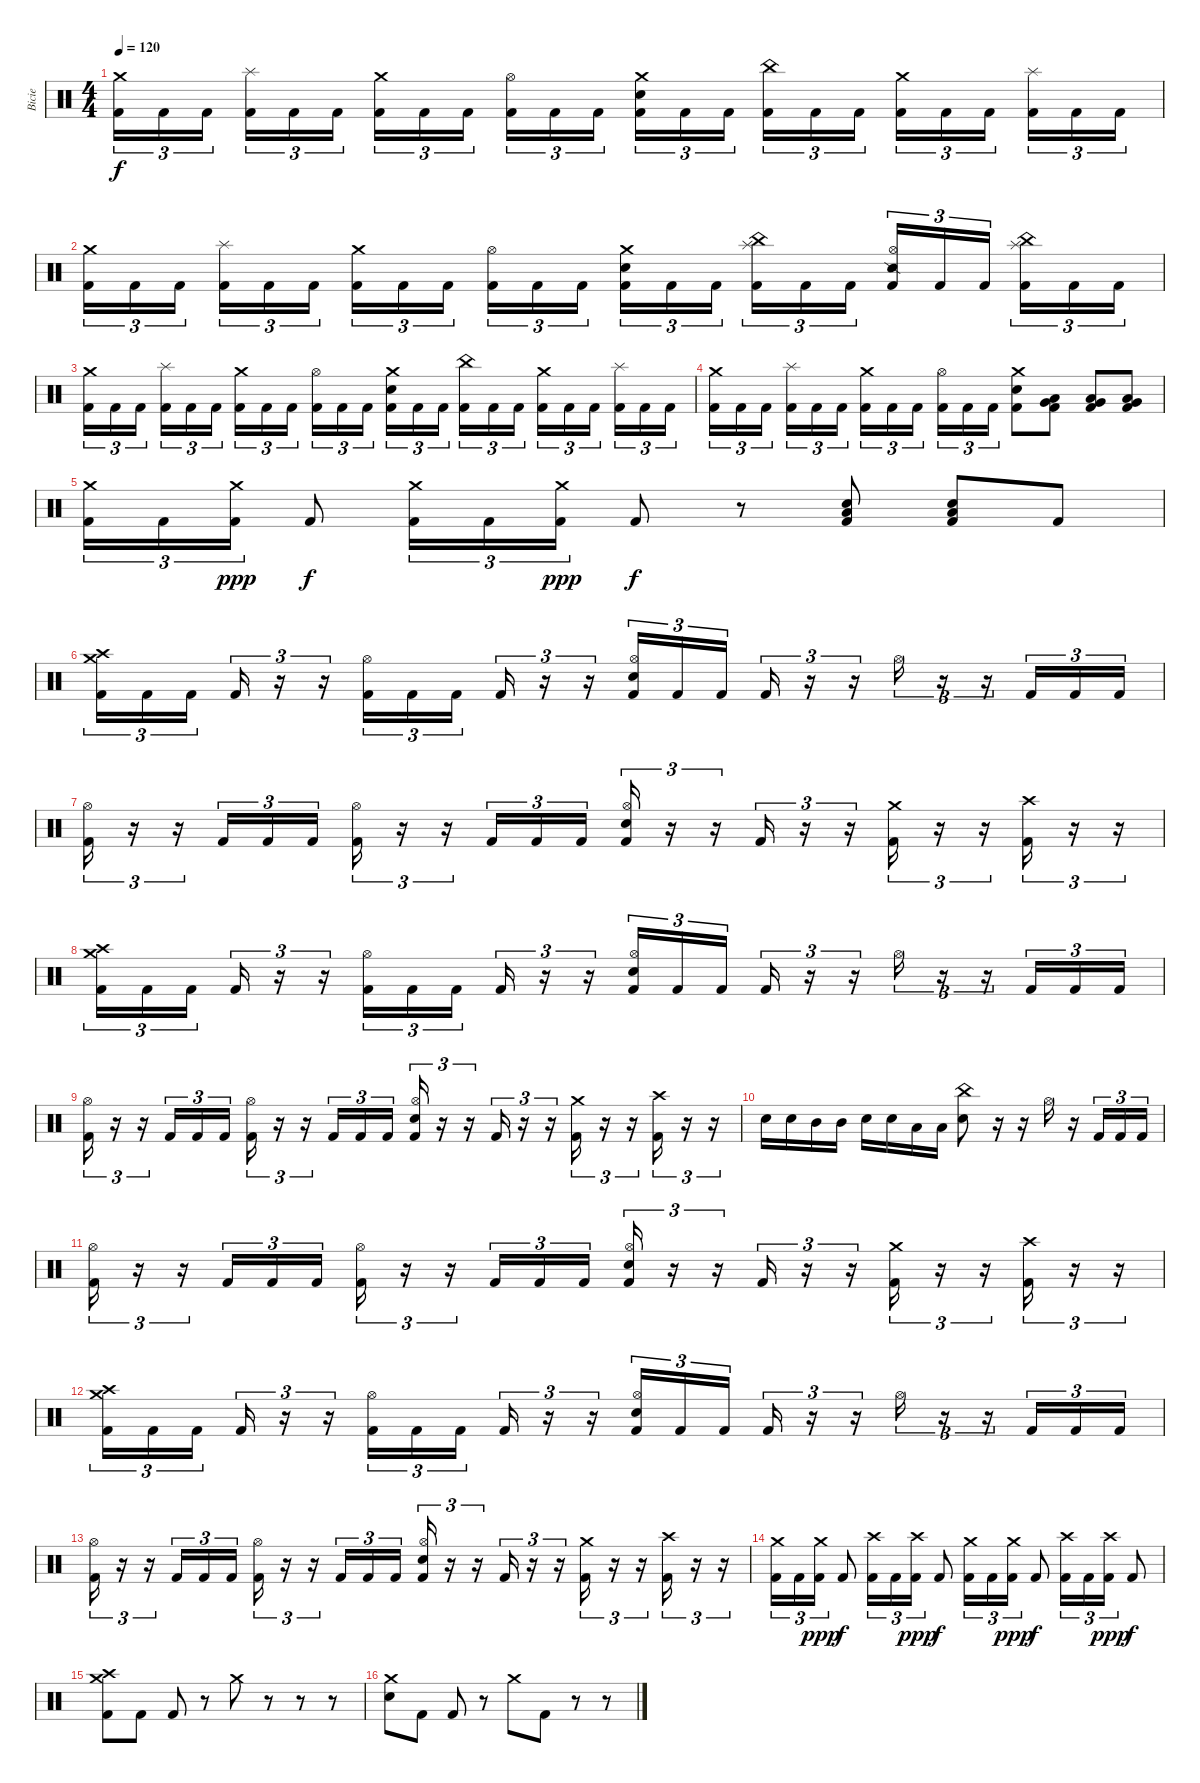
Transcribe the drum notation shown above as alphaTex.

\track ("Bicie" "Bicie") {instrument percussion}
\staff {score}
\articulation defaults
\ts (4 4)
\tempo 120
\clef neutral
\ks c
("Crash medium (hit)" "Kick (hit) 2").16{tu (3 2) dy f} "Kick (hit) 2".16{tu (3 2)} "Kick (hit) 2".16{tu (3 2) beam splitsecondary} ("Splash (hit)" "Kick (hit) 2").16{tu (3 2)} "Kick (hit) 2".16{tu (3 2)} "Kick (hit) 2".16{tu (3 2)} ("Crash medium (hit)" "Kick (hit) 2").16{tu (3 2)} "Kick (hit) 2".16{tu (3 2)} "Kick (hit) 2".16{tu (3 2) beam splitsecondary} ("Hi-Hat (open)" "Kick (hit) 2").16{tu (3 2)} "Kick (hit) 2".16{tu (3 2)} "Kick (hit) 2".16{tu (3 2)} ("Crash medium (hit)" "Snare (hit) 2" "Kick (hit) 2").16{tu (3 2)} "Kick (hit) 2".16{tu (3 2)} "Kick (hit) 2".16{tu (3 2) beam splitsecondary} ("China (hit)" "Kick (hit) 2").16{tu (3 2)} "Kick (hit) 2".16{tu (3 2)} "Kick (hit) 2".16{tu (3 2)} ("Crash medium (hit)" "Kick (hit) 2").16{tu (3 2)} "Kick (hit) 2".16{tu (3 2)} "Kick (hit) 2".16{tu (3 2) beam splitsecondary} ("Splash (hit)" "Kick (hit) 2").16{tu (3 2)} "Kick (hit) 2".16{tu (3 2)} "Kick (hit) 2".16{tu (3 2)} |
("Crash medium (hit)" "Kick (hit) 2").16{tu (3 2)} "Kick (hit) 2".16{tu (3 2)} "Kick (hit) 2".16{tu (3 2) beam splitsecondary} ("Splash (hit)" "Kick (hit) 2").16{tu (3 2)} "Kick (hit) 2".16{tu (3 2)} "Kick (hit) 2".16{tu (3 2)} ("Crash medium (hit)" "Kick (hit) 2").16{tu (3 2)} "Kick (hit) 2".16{tu (3 2)} "Kick (hit) 2".16{tu (3 2) beam splitsecondary} ("Hi-Hat (open)" "Kick (hit) 2").16{tu (3 2)} "Kick (hit) 2".16{tu (3 2)} "Kick (hit) 2".16{tu (3 2)} ("Crash medium (hit)" "Snare (hit) 2" "Kick (hit) 2").16{tu (3 2)} "Kick (hit) 2".16{tu (3 2)} "Kick (hit) 2".16{tu (3 2) beam splitsecondary} ("China (hit)" "Splash (hit)" "Kick (hit) 2").16{tu (3 2)} "Kick (hit) 2".16{tu (3 2)} "Kick (hit) 2".16{tu (3 2)} ("Snare (side stick) 2" "Hi-Hat (open)" "Kick (hit) 2").16{tu (3 2)} "Kick (hit) 2".16{tu (3 2)} "Kick (hit) 2".16{tu (3 2) beam splitsecondary} ("China (hit)" "Splash (hit)" "Kick (hit) 2").16{tu (3 2)} "Kick (hit) 2".16{tu (3 2)} "Kick (hit) 2".16{tu (3 2)} |
("Crash medium (hit)" "Kick (hit) 2").16{tu (3 2)} "Kick (hit) 2".16{tu (3 2)} "Kick (hit) 2".16{tu (3 2) beam splitsecondary} ("Splash (hit)" "Kick (hit) 2").16{tu (3 2)} "Kick (hit) 2".16{tu (3 2)} "Kick (hit) 2".16{tu (3 2)} ("Crash medium (hit)" "Kick (hit) 2").16{tu (3 2)} "Kick (hit) 2".16{tu (3 2)} "Kick (hit) 2".16{tu (3 2) beam splitsecondary} ("Hi-Hat (open)" "Kick (hit) 2").16{tu (3 2)} "Kick (hit) 2".16{tu (3 2)} "Kick (hit) 2".16{tu (3 2)} ("Crash medium (hit)" "Snare (hit) 2" "Kick (hit) 2").16{tu (3 2)} "Kick (hit) 2".16{tu (3 2)} "Kick (hit) 2".16{tu (3 2) beam splitsecondary} ("China (hit)" "Kick (hit) 2").16{tu (3 2)} "Kick (hit) 2".16{tu (3 2)} "Kick (hit) 2".16{tu (3 2)} ("Crash medium (hit)" "Kick (hit) 2").16{tu (3 2)} "Kick (hit) 2".16{tu (3 2)} "Kick (hit) 2".16{tu (3 2) beam splitsecondary} ("Splash (hit)" "Kick (hit) 2").16{tu (3 2)} "Kick (hit) 2".16{tu (3 2)} "Kick (hit) 2".16{tu (3 2)} |
("Crash medium (hit)" "Kick (hit) 2").16{tu (3 2)} "Kick (hit) 2".16{tu (3 2)} "Kick (hit) 2".16{tu (3 2) beam splitsecondary} ("Splash (hit)" "Kick (hit) 2").16{tu (3 2)} "Kick (hit) 2".16{tu (3 2)} "Kick (hit) 2".16{tu (3 2)} ("Crash medium (hit)" "Kick (hit) 2").16{tu (3 2)} "Kick (hit) 2".16{tu (3 2)} "Kick (hit) 2".16{tu (3 2) beam splitsecondary} ("Hi-Hat (open)" "Kick (hit) 2").16{tu (3 2)} "Kick (hit) 2".16{tu (3 2)} "Kick (hit) 2".16{tu (3 2)} ("Crash medium (hit)" "Snare (hit) 2" "Kick (hit) 2").8 ("Low Tom (hit)" "Very Low Tom (hit)" "Kick (hit) 2").8 ("Very Low Tom (hit)" "Low Floor Tom (hit)" "Kick (hit) 2").8 ("Very Low Tom (hit)" "Low Floor Tom (hit)" "Kick (hit) 2").8 |
("Crash medium (hit)" "Kick (hit) 2").16{tu (3 2)} "Kick (hit) 2".16{tu (3 2)} ("Crash medium (hit)" "Kick (hit) 2").16{tu (3 2) dy ppp} "Kick (hit) 2".8{dy f} ("Crash medium (hit)" "Kick (hit) 2").16{tu (3 2)} "Kick (hit) 2".16{tu (3 2)} ("Crash medium (hit)" "Kick (hit) 2").16{tu (3 2) dy ppp} "Kick (hit) 2".8{dy f} r.8 ("Low Floor Tom (hit)" "Snare (hit) 2" "Kick (hit) 2").8 ("Low Floor Tom (hit)" "Snare (hit) 2" "Kick (hit) 2").8 "Kick (hit) 2".8 |
("Crash medium (hit)" "Crash high (hit)" "Kick (hit) 2").16{tu (3 2)} "Kick (hit) 2".16{tu (3 2)} "Kick (hit) 2".16{tu (3 2) beam splitsecondary} "Kick (hit) 2".16{tu (3 2)} r.16{tu (3 2)} r.16{tu (3 2)} ("Hi-Hat (open)" "Kick (hit) 2").16{tu (3 2)} "Kick (hit) 2".16{tu (3 2)} "Kick (hit) 2".16{tu (3 2) beam splitsecondary} "Kick (hit) 2".16{tu (3 2)} r.16{tu (3 2)} r.16{tu (3 2)} ("Hi-Hat (open)" "Snare (hit) 2" "Kick (hit) 2").16{tu (3 2)} "Kick (hit) 2".16{tu (3 2)} "Kick (hit) 2".16{tu (3 2) beam splitsecondary} "Kick (hit) 2".16{tu (3 2)} r.16{tu (3 2)} r.16{tu (3 2)} "Hi-Hat (open)".16{tu (3 2)} r.16{tu (3 2)} r.16{tu (3 2)} "Kick (hit) 2".16{tu (3 2)} "Kick (hit) 2".16{tu (3 2)} "Kick (hit) 2".16{tu (3 2)} |
("Hi-Hat (open)" "Kick (hit) 2").16{tu (3 2)} r.16{tu (3 2)} r.16{tu (3 2)} "Kick (hit) 2".16{tu (3 2)} "Kick (hit) 2".16{tu (3 2)} "Kick (hit) 2".16{tu (3 2)} ("Hi-Hat (open)" "Kick (hit) 2").16{tu (3 2)} r.16{tu (3 2)} r.16{tu (3 2)} "Kick (hit) 2".16{tu (3 2)} "Kick (hit) 2".16{tu (3 2)} "Kick (hit) 2".16{tu (3 2)} ("Hi-Hat (open)" "Snare (hit) 2" "Kick (hit) 2").16{tu (3 2)} r.16{tu (3 2)} r.16{tu (3 2)} "Kick (hit) 2".16{tu (3 2)} r.16{tu (3 2)} r.16{tu (3 2)} ("Crash medium (hit)" "Kick (hit) 2").16{tu (3 2)} r.16{tu (3 2)} r.16{tu (3 2)} ("Crash high (hit)" "Kick (hit) 2").16{tu (3 2)} r.16{tu (3 2)} r.16{tu (3 2)} |
("Crash medium (hit)" "Crash high (hit)" "Kick (hit) 2").16{tu (3 2)} "Kick (hit) 2".16{tu (3 2)} "Kick (hit) 2".16{tu (3 2) beam splitsecondary} "Kick (hit) 2".16{tu (3 2)} r.16{tu (3 2)} r.16{tu (3 2)} ("Hi-Hat (open)" "Kick (hit) 2").16{tu (3 2)} "Kick (hit) 2".16{tu (3 2)} "Kick (hit) 2".16{tu (3 2) beam splitsecondary} "Kick (hit) 2".16{tu (3 2)} r.16{tu (3 2)} r.16{tu (3 2)} ("Hi-Hat (open)" "Snare (hit) 2" "Kick (hit) 2").16{tu (3 2)} "Kick (hit) 2".16{tu (3 2)} "Kick (hit) 2".16{tu (3 2) beam splitsecondary} "Kick (hit) 2".16{tu (3 2)} r.16{tu (3 2)} r.16{tu (3 2)} "Hi-Hat (open)".16{tu (3 2)} r.16{tu (3 2)} r.16{tu (3 2)} "Kick (hit) 2".16{tu (3 2)} "Kick (hit) 2".16{tu (3 2)} "Kick (hit) 2".16{tu (3 2)} |
("Hi-Hat (open)" "Kick (hit) 2").16{tu (3 2)} r.16{tu (3 2)} r.16{tu (3 2)} "Kick (hit) 2".16{tu (3 2)} "Kick (hit) 2".16{tu (3 2)} "Kick (hit) 2".16{tu (3 2)} ("Hi-Hat (open)" "Kick (hit) 2").16{tu (3 2)} r.16{tu (3 2)} r.16{tu (3 2)} "Kick (hit) 2".16{tu (3 2)} "Kick (hit) 2".16{tu (3 2)} "Kick (hit) 2".16{tu (3 2)} ("Hi-Hat (open)" "Snare (hit) 2" "Kick (hit) 2").16{tu (3 2)} r.16{tu (3 2)} r.16{tu (3 2)} "Kick (hit) 2".16{tu (3 2)} r.16{tu (3 2)} r.16{tu (3 2)} ("Crash medium (hit)" "Kick (hit) 2").16{tu (3 2)} r.16{tu (3 2)} r.16{tu (3 2)} ("Crash high (hit)" "Kick (hit) 2").16{tu (3 2)} r.16{tu (3 2)} r.16{tu (3 2)} |
"Snare (hit) 2".16 "Snare (hit) 2".16 "Mid Tom (hit)".16 "Mid Tom (hit)".16 "Snare (hit) 2".16 "Snare (hit) 2".16 "Low Tom (hit)".16 "Low Tom (hit)".16 ("China (hit)" "Snare (hit) 2").8 r.16 r.16 "Hi-Hat (open)".16 r.16 "Kick (hit) 2".16{tu (3 2)} "Kick (hit) 2".16{tu (3 2)} "Kick (hit) 2".16{tu (3 2)} |
("Hi-Hat (open)" "Kick (hit) 2").16{tu (3 2)} r.16{tu (3 2)} r.16{tu (3 2)} "Kick (hit) 2".16{tu (3 2)} "Kick (hit) 2".16{tu (3 2)} "Kick (hit) 2".16{tu (3 2)} ("Hi-Hat (open)" "Kick (hit) 2").16{tu (3 2)} r.16{tu (3 2)} r.16{tu (3 2)} "Kick (hit) 2".16{tu (3 2)} "Kick (hit) 2".16{tu (3 2)} "Kick (hit) 2".16{tu (3 2)} ("Hi-Hat (open)" "Snare (hit) 2" "Kick (hit) 2").16{tu (3 2)} r.16{tu (3 2)} r.16{tu (3 2)} "Kick (hit) 2".16{tu (3 2)} r.16{tu (3 2)} r.16{tu (3 2)} ("Crash medium (hit)" "Kick (hit) 2").16{tu (3 2)} r.16{tu (3 2)} r.16{tu (3 2)} ("Crash high (hit)" "Kick (hit) 2").16{tu (3 2)} r.16{tu (3 2)} r.16{tu (3 2)} |
("Crash medium (hit)" "Crash high (hit)" "Kick (hit) 2").16{tu (3 2)} "Kick (hit) 2".16{tu (3 2)} "Kick (hit) 2".16{tu (3 2) beam splitsecondary} "Kick (hit) 2".16{tu (3 2)} r.16{tu (3 2)} r.16{tu (3 2)} ("Hi-Hat (open)" "Kick (hit) 2").16{tu (3 2)} "Kick (hit) 2".16{tu (3 2)} "Kick (hit) 2".16{tu (3 2) beam splitsecondary} "Kick (hit) 2".16{tu (3 2)} r.16{tu (3 2)} r.16{tu (3 2)} ("Hi-Hat (open)" "Snare (hit) 2" "Kick (hit) 2").16{tu (3 2)} "Kick (hit) 2".16{tu (3 2)} "Kick (hit) 2".16{tu (3 2) beam splitsecondary} "Kick (hit) 2".16{tu (3 2)} r.16{tu (3 2)} r.16{tu (3 2)} "Hi-Hat (open)".16{tu (3 2)} r.16{tu (3 2)} r.16{tu (3 2)} "Kick (hit) 2".16{tu (3 2)} "Kick (hit) 2".16{tu (3 2)} "Kick (hit) 2".16{tu (3 2)} |
("Hi-Hat (open)" "Kick (hit) 2").16{tu (3 2)} r.16{tu (3 2)} r.16{tu (3 2)} "Kick (hit) 2".16{tu (3 2)} "Kick (hit) 2".16{tu (3 2)} "Kick (hit) 2".16{tu (3 2)} ("Hi-Hat (open)" "Kick (hit) 2").16{tu (3 2)} r.16{tu (3 2)} r.16{tu (3 2)} "Kick (hit) 2".16{tu (3 2)} "Kick (hit) 2".16{tu (3 2)} "Kick (hit) 2".16{tu (3 2)} ("Hi-Hat (open)" "Snare (hit) 2" "Kick (hit) 2").16{tu (3 2)} r.16{tu (3 2)} r.16{tu (3 2)} "Kick (hit) 2".16{tu (3 2)} r.16{tu (3 2)} r.16{tu (3 2)} ("Crash medium (hit)" "Kick (hit) 2").16{tu (3 2)} r.16{tu (3 2)} r.16{tu (3 2)} ("Crash high (hit)" "Kick (hit) 2").16{tu (3 2)} r.16{tu (3 2)} r.16{tu (3 2)} |
("Crash medium (hit)" "Kick (hit) 2").16{tu (3 2)} "Kick (hit) 2".16{tu (3 2)} ("Crash medium (hit)" "Kick (hit) 2").16{tu (3 2) dy ppp} "Kick (hit) 2".8{dy f} ("Crash high (hit)" "Kick (hit) 2").16{tu (3 2)} "Kick (hit) 2".16{tu (3 2)} ("Crash high (hit)" "Kick (hit) 2").16{tu (3 2) dy ppp} "Kick (hit) 2".8{dy f} ("Crash medium (hit)" "Kick (hit) 2").16{tu (3 2)} "Kick (hit) 2".16{tu (3 2)} ("Crash medium (hit)" "Kick (hit) 2").16{tu (3 2) dy ppp} "Kick (hit) 2".8{dy f} ("Crash high (hit)" "Kick (hit) 2").16{tu (3 2)} "Kick (hit) 2".16{tu (3 2)} ("Crash high (hit)" "Kick (hit) 2").16{tu (3 2) dy ppp} "Kick (hit) 2".8{dy f} |
("Crash high (hit)" "Crash medium (hit)" "Kick (hit) 2").8 "Kick (hit) 2".8 "Kick (hit) 2".8 r.8 "Crash medium (hit)".8 r.8 r.8 r.8 |
("Crash medium (hit)" "Snare (hit) 2").8 "Kick (hit) 2".8 "Kick (hit) 2".8 r.8 "Crash medium (hit)".8 "Kick (hit) 2".8 r.8 r.8
